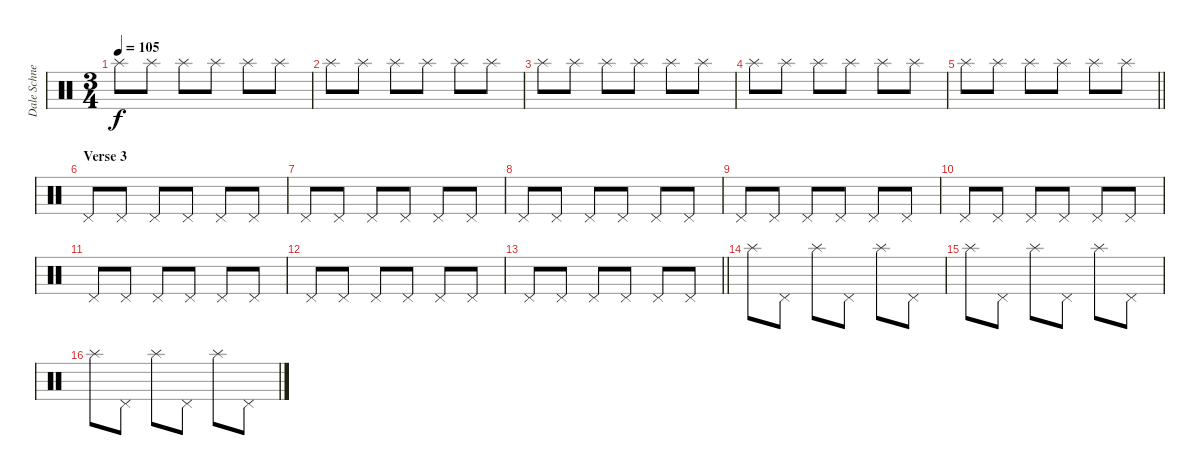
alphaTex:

\track ("Dale Schnettler (Drums)" "Dale Schne") {instrument percussion}
\staff {score}
\articulation defaults
\ts (3 4)
\tempo 105
\clef neutral
\ks c "Splash (hit)".8{dy f} "Splash (hit)".8 "Splash (hit)".8 "Splash (hit)".8 "Splash (hit)".8 "Splash (hit)".8
|
"Splash (hit)".8 "Splash (hit)".8 "Splash (hit)".8 "Splash (hit)".8 "Splash (hit)".8 "Splash (hit)".8 |
"Splash (hit)".8 "Splash (hit)".8 "Splash (hit)".8 "Splash (hit)".8 "Splash (hit)".8 "Splash (hit)".8 |
"Splash (hit)".8 "Splash (hit)".8 "Splash (hit)".8 "Splash (hit)".8 "Splash (hit)".8 "Splash (hit)".8 |
\barLineRight lightlight "Splash (hit)".8 "Splash (hit)".8 "Splash (hit)".8 "Splash (hit)".8 "Splash (hit)".8 "Splash (hit)".8
|
\section ("" "Verse 3")
"Pedal Hi-Hat (hit)".8 "Pedal Hi-Hat (hit)".8 "Pedal Hi-Hat (hit)".8 "Pedal Hi-Hat (hit)".8 "Pedal Hi-Hat (hit)".8 "Pedal Hi-Hat (hit)".8 |
"Pedal Hi-Hat (hit)".8 "Pedal Hi-Hat (hit)".8 "Pedal Hi-Hat (hit)".8 "Pedal Hi-Hat (hit)".8 "Pedal Hi-Hat (hit)".8 "Pedal Hi-Hat (hit)".8 |
"Pedal Hi-Hat (hit)".8 "Pedal Hi-Hat (hit)".8 "Pedal Hi-Hat (hit)".8 "Pedal Hi-Hat (hit)".8 "Pedal Hi-Hat (hit)".8 "Pedal Hi-Hat (hit)".8 |
"Pedal Hi-Hat (hit)".8 "Pedal Hi-Hat (hit)".8 "Pedal Hi-Hat (hit)".8 "Pedal Hi-Hat (hit)".8 "Pedal Hi-Hat (hit)".8 "Pedal Hi-Hat (hit)".8 |
"Pedal Hi-Hat (hit)".8 "Pedal Hi-Hat (hit)".8 "Pedal Hi-Hat (hit)".8 "Pedal Hi-Hat (hit)".8 "Pedal Hi-Hat (hit)".8 "Pedal Hi-Hat (hit)".8 |
"Pedal Hi-Hat (hit)".8 "Pedal Hi-Hat (hit)".8 "Pedal Hi-Hat (hit)".8 "Pedal Hi-Hat (hit)".8 "Pedal Hi-Hat (hit)".8 "Pedal Hi-Hat (hit)".8 |
"Pedal Hi-Hat (hit)".8 "Pedal Hi-Hat (hit)".8 "Pedal Hi-Hat (hit)".8 "Pedal Hi-Hat (hit)".8 "Pedal Hi-Hat (hit)".8 "Pedal Hi-Hat (hit)".8 |
\barLineRight lightlight "Pedal Hi-Hat (hit)".8 "Pedal Hi-Hat (hit)".8 "Pedal Hi-Hat (hit)".8 "Pedal Hi-Hat (hit)".8 "Pedal Hi-Hat (hit)".8 "Pedal Hi-Hat (hit)".8
|
"Splash (hit)".8 "Pedal Hi-Hat (hit)".8 "Splash (hit)".8 "Pedal Hi-Hat (hit)".8 "Splash (hit)".8 "Pedal Hi-Hat (hit)".8 |
"Splash (hit)".8 "Pedal Hi-Hat (hit)".8 "Splash (hit)".8 "Pedal Hi-Hat (hit)".8 "Splash (hit)".8 "Pedal Hi-Hat (hit)".8 |
"Splash (hit)".8 "Pedal Hi-Hat (hit)".8 "Splash (hit)".8 "Pedal Hi-Hat (hit)".8 "Splash (hit)".8 "Pedal Hi-Hat (hit)".8
